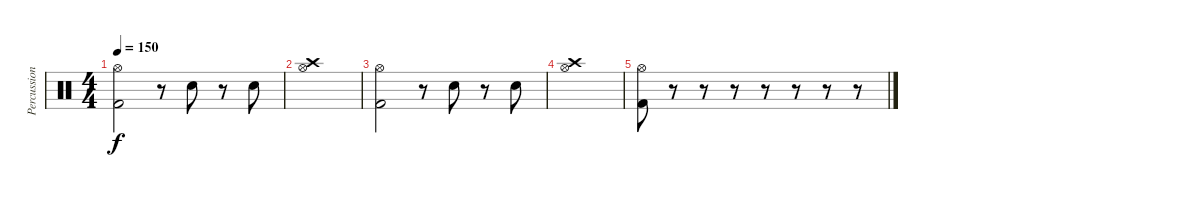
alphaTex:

\track ("Percussion" "Percussion") {instrument percussion}
\staff {score}
\articulation defaults
\ts (4 4)
\tempo 150
\clef neutral
\ks c
("Hi-Hat (open)" "Kick (hit) 2").2{dy f} r.8 "Electric Snare (hit)".8 r.8 "Electric Snare (hit)".8 |
("Crash high (hit)" "Hi-Hat (open)").1 |
("Hi-Hat (open)" "Kick (hit) 2").2 r.8 "Electric Snare (hit)".8 r.8 "Electric Snare (hit)".8 |
("Crash high (hit)" "Hi-Hat (open)").1 |
("Kick (hit) 2" "Hi-Hat (open)").8 r.8 r.8 r.8 r.8 r.8 r.8 r.8
